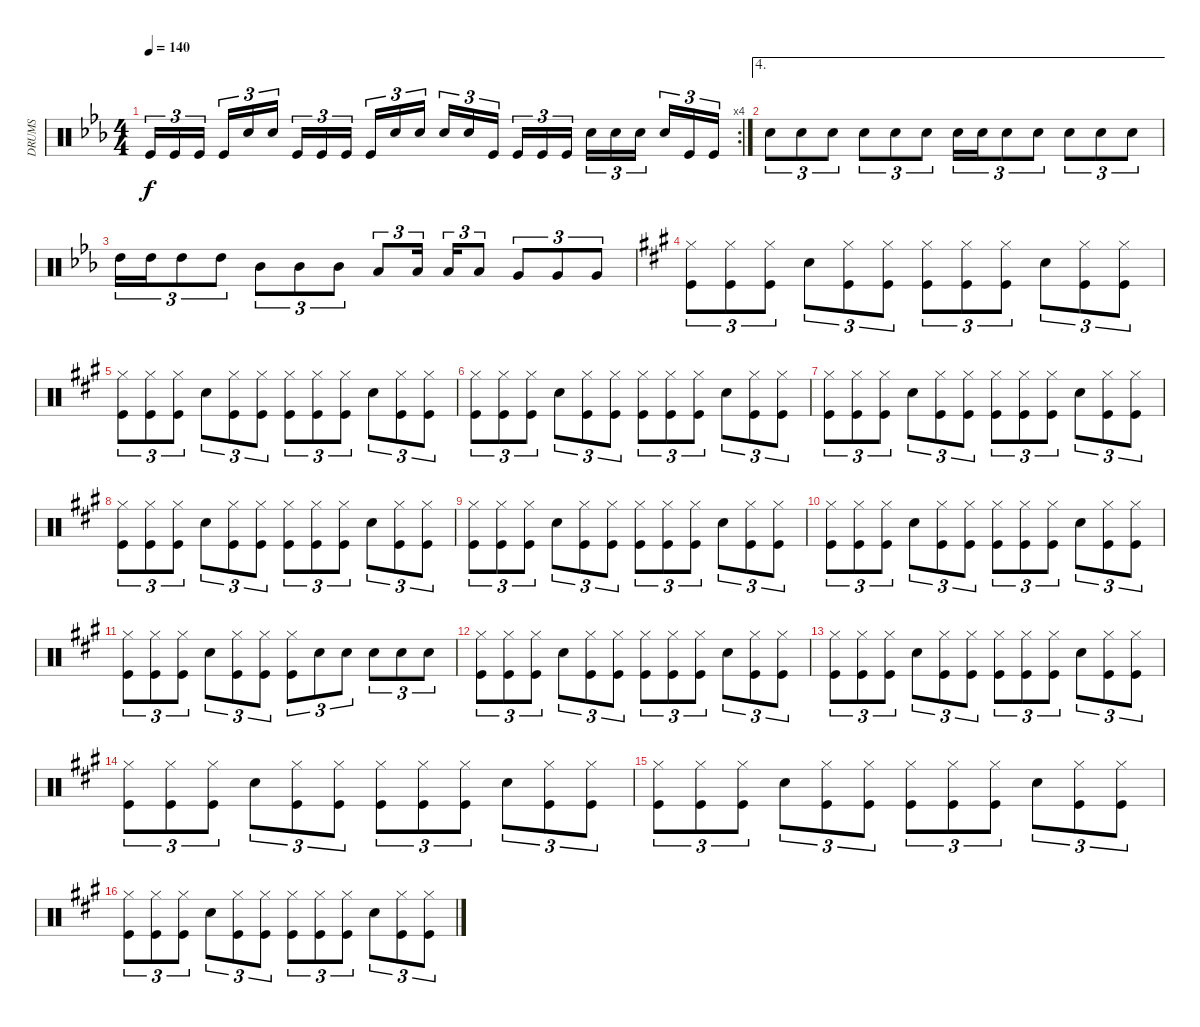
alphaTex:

\track ("DRUMS" "DRUMS") {instrument percussion}
\staff {score}
\articulation defaults
\rc 4
\ts (4 4)
\tempo 140
\clef neutral
\ks eb "Kick (hit)".16{tu (3 2) dy f} "Kick (hit)".16{tu (3 2)} "Kick (hit)".16{tu (3 2) beam splitsecondary} "Kick (hit)".16{tu (3 2)} "Snare (hit) 2".16{tu (3 2)} "Snare (hit) 2".16{tu (3 2)} "Kick (hit)".16{tu (3 2)} "Kick (hit)".16{tu (3 2)} "Kick (hit)".16{tu (3 2) beam splitsecondary} "Kick (hit)".16{tu (3 2)} "Snare (hit) 2".16{tu (3 2)} "Snare (hit) 2".16{tu (3 2)} "Snare (hit) 2".16{tu (3 2)} "Snare (hit) 2".16{tu (3 2)} "Kick (hit)".16{tu (3 2) beam splitsecondary} "Kick (hit)".16{tu (3 2)} "Kick (hit)".16{tu (3 2)} "Kick (hit)".16{tu (3 2)} "Snare (hit) 2".16{tu (3 2)} "Snare (hit) 2".16{tu (3 2)} "Snare (hit) 2".16{tu (3 2) beam splitsecondary} "Snare (hit) 2".16{tu (3 2)} "Kick (hit)".16{tu (3 2)} "Kick (hit)".16{tu (3 2)}
|
\ae 4 "Snare (hit) 2".8{tu (3 2)} "Snare (hit) 2".8{tu (3 2)} "Snare (hit) 2".8{tu (3 2)} "Snare (hit) 2".8{tu (3 2)} "Snare (hit) 2".8{tu (3 2)} "Snare (hit) 2".8{tu (3 2)} "Snare (hit) 2".16{tu (3 2)} "Snare (hit) 2".16{tu (3 2)} "Snare (hit) 2".8{tu (3 2)} "Snare (hit) 2".8{tu (3 2)} "Snare (hit) 2".8{tu (3 2)} "Snare (hit) 2".8{tu (3 2)} "Snare (hit) 2".8{tu (3 2)}
|
"High Tom (hit)".16{tu (3 2)} "High Tom (hit)".16{tu (3 2)} "High Tom (hit)".8{tu (3 2)} "High Tom (hit)".8{tu (3 2)} "Mid Tom (hit)".8{tu (3 2)} "Mid Tom (hit)".8{tu (3 2)} "Mid Tom (hit)".8{tu (3 2)} "Low Tom (hit)".8{tu (3 2)} "Low Tom (hit)".16{tu (3 2) beam splitsecondary} "Low Tom (hit)".16{tu (3 2)} "Low Tom (hit)".8{tu (3 2)} "Very Low Tom (hit)".8{tu (3 2)} "Very Low Tom (hit)".8{tu (3 2)} "Very Low Tom (hit)".8{tu (3 2)} |
\ks a
("Hi-Hat (closed)" "Kick (hit)").8{tu (3 2)} ("Hi-Hat (closed)" "Kick (hit)").8{tu (3 2)} ("Hi-Hat (closed)" "Kick (hit)").8{tu (3 2)} "Snare (hit) 2".8{tu (3 2)} ("Hi-Hat (closed)" "Kick (hit)").8{tu (3 2)} ("Hi-Hat (closed)" "Kick (hit)").8{tu (3 2)} ("Hi-Hat (closed)" "Kick (hit)").8{tu (3 2)} ("Hi-Hat (closed)" "Kick (hit)").8{tu (3 2)} ("Hi-Hat (closed)" "Kick (hit)").8{tu (3 2)} "Snare (hit) 2".8{tu (3 2)} ("Hi-Hat (closed)" "Kick (hit)").8{tu (3 2)} ("Hi-Hat (closed)" "Kick (hit)").8{tu (3 2)} |
("Hi-Hat (closed)" "Kick (hit)").8{tu (3 2)} ("Hi-Hat (closed)" "Kick (hit)").8{tu (3 2)} ("Hi-Hat (closed)" "Kick (hit)").8{tu (3 2)} "Snare (hit) 2".8{tu (3 2)} ("Hi-Hat (closed)" "Kick (hit)").8{tu (3 2)} ("Hi-Hat (closed)" "Kick (hit)").8{tu (3 2)} ("Hi-Hat (closed)" "Kick (hit)").8{tu (3 2)} ("Hi-Hat (closed)" "Kick (hit)").8{tu (3 2)} ("Hi-Hat (closed)" "Kick (hit)").8{tu (3 2)} "Snare (hit) 2".8{tu (3 2)} ("Hi-Hat (closed)" "Kick (hit)").8{tu (3 2)} ("Hi-Hat (closed)" "Kick (hit)").8{tu (3 2)} |
("Hi-Hat (closed)" "Kick (hit)").8{tu (3 2)} ("Hi-Hat (closed)" "Kick (hit)").8{tu (3 2)} ("Hi-Hat (closed)" "Kick (hit)").8{tu (3 2)} "Snare (hit) 2".8{tu (3 2)} ("Hi-Hat (closed)" "Kick (hit)").8{tu (3 2)} ("Hi-Hat (closed)" "Kick (hit)").8{tu (3 2)} ("Hi-Hat (closed)" "Kick (hit)").8{tu (3 2)} ("Hi-Hat (closed)" "Kick (hit)").8{tu (3 2)} ("Hi-Hat (closed)" "Kick (hit)").8{tu (3 2)} "Snare (hit) 2".8{tu (3 2)} ("Hi-Hat (closed)" "Kick (hit)").8{tu (3 2)} ("Hi-Hat (closed)" "Kick (hit)").8{tu (3 2)} |
("Hi-Hat (closed)" "Kick (hit)").8{tu (3 2)} ("Hi-Hat (closed)" "Kick (hit)").8{tu (3 2)} ("Hi-Hat (closed)" "Kick (hit)").8{tu (3 2)} "Snare (hit) 2".8{tu (3 2)} ("Hi-Hat (closed)" "Kick (hit)").8{tu (3 2)} ("Hi-Hat (closed)" "Kick (hit)").8{tu (3 2)} ("Hi-Hat (closed)" "Kick (hit)").8{tu (3 2)} ("Hi-Hat (closed)" "Kick (hit)").8{tu (3 2)} ("Hi-Hat (closed)" "Kick (hit)").8{tu (3 2)} "Snare (hit) 2".8{tu (3 2)} ("Hi-Hat (closed)" "Kick (hit)").8{tu (3 2)} ("Hi-Hat (closed)" "Kick (hit)").8{tu (3 2)} |
("Hi-Hat (closed)" "Kick (hit)").8{tu (3 2)} ("Hi-Hat (closed)" "Kick (hit)").8{tu (3 2)} ("Hi-Hat (closed)" "Kick (hit)").8{tu (3 2)} "Snare (hit) 2".8{tu (3 2)} ("Hi-Hat (closed)" "Kick (hit)").8{tu (3 2)} ("Hi-Hat (closed)" "Kick (hit)").8{tu (3 2)} ("Hi-Hat (closed)" "Kick (hit)").8{tu (3 2)} ("Hi-Hat (closed)" "Kick (hit)").8{tu (3 2)} ("Hi-Hat (closed)" "Kick (hit)").8{tu (3 2)} "Snare (hit) 2".8{tu (3 2)} ("Hi-Hat (closed)" "Kick (hit)").8{tu (3 2)} ("Hi-Hat (closed)" "Kick (hit)").8{tu (3 2)} |
("Hi-Hat (closed)" "Kick (hit)").8{tu (3 2)} ("Hi-Hat (closed)" "Kick (hit)").8{tu (3 2)} ("Hi-Hat (closed)" "Kick (hit)").8{tu (3 2)} "Snare (hit) 2".8{tu (3 2)} ("Hi-Hat (closed)" "Kick (hit)").8{tu (3 2)} ("Hi-Hat (closed)" "Kick (hit)").8{tu (3 2)} ("Hi-Hat (closed)" "Kick (hit)").8{tu (3 2)} ("Hi-Hat (closed)" "Kick (hit)").8{tu (3 2)} ("Hi-Hat (closed)" "Kick (hit)").8{tu (3 2)} "Snare (hit) 2".8{tu (3 2)} ("Hi-Hat (closed)" "Kick (hit)").8{tu (3 2)} ("Hi-Hat (closed)" "Kick (hit)").8{tu (3 2)} |
("Hi-Hat (closed)" "Kick (hit)").8{tu (3 2)} ("Hi-Hat (closed)" "Kick (hit)").8{tu (3 2)} ("Hi-Hat (closed)" "Kick (hit)").8{tu (3 2)} "Snare (hit) 2".8{tu (3 2)} ("Hi-Hat (closed)" "Kick (hit)").8{tu (3 2)} ("Hi-Hat (closed)" "Kick (hit)").8{tu (3 2)} ("Hi-Hat (closed)" "Kick (hit)").8{tu (3 2)} ("Hi-Hat (closed)" "Kick (hit)").8{tu (3 2)} ("Hi-Hat (closed)" "Kick (hit)").8{tu (3 2)} "Snare (hit) 2".8{tu (3 2)} ("Hi-Hat (closed)" "Kick (hit)").8{tu (3 2)} ("Hi-Hat (closed)" "Kick (hit)").8{tu (3 2)} |
("Hi-Hat (closed)" "Kick (hit)").8{tu (3 2)} ("Hi-Hat (closed)" "Kick (hit)").8{tu (3 2)} ("Hi-Hat (closed)" "Kick (hit)").8{tu (3 2)} "Snare (hit) 2".8{tu (3 2)} ("Hi-Hat (closed)" "Kick (hit)").8{tu (3 2)} ("Hi-Hat (closed)" "Kick (hit)").8{tu (3 2)} ("Hi-Hat (closed)" "Kick (hit)").8{tu (3 2)} "Snare (hit) 2".8{tu (3 2)} "Snare (hit) 2".8{tu (3 2)} "Snare (hit) 2".8{tu (3 2)} "Snare (hit) 2".8{tu (3 2)} "Snare (hit) 2".8{tu (3 2)} |
("Hi-Hat (closed)" "Kick (hit)").8{tu (3 2)} ("Hi-Hat (closed)" "Kick (hit)").8{tu (3 2)} ("Hi-Hat (closed)" "Kick (hit)").8{tu (3 2)} "Snare (hit) 2".8{tu (3 2)} ("Hi-Hat (closed)" "Kick (hit)").8{tu (3 2)} ("Hi-Hat (closed)" "Kick (hit)").8{tu (3 2)} ("Hi-Hat (closed)" "Kick (hit)").8{tu (3 2)} ("Hi-Hat (closed)" "Kick (hit)").8{tu (3 2)} ("Hi-Hat (closed)" "Kick (hit)").8{tu (3 2)} "Snare (hit) 2".8{tu (3 2)} ("Hi-Hat (closed)" "Kick (hit)").8{tu (3 2)} ("Hi-Hat (closed)" "Kick (hit)").8{tu (3 2)} |
("Hi-Hat (closed)" "Kick (hit)").8{tu (3 2)} ("Hi-Hat (closed)" "Kick (hit)").8{tu (3 2)} ("Hi-Hat (closed)" "Kick (hit)").8{tu (3 2)} "Snare (hit) 2".8{tu (3 2)} ("Hi-Hat (closed)" "Kick (hit)").8{tu (3 2)} ("Hi-Hat (closed)" "Kick (hit)").8{tu (3 2)} ("Hi-Hat (closed)" "Kick (hit)").8{tu (3 2)} ("Hi-Hat (closed)" "Kick (hit)").8{tu (3 2)} ("Hi-Hat (closed)" "Kick (hit)").8{tu (3 2)} "Snare (hit) 2".8{tu (3 2)} ("Hi-Hat (closed)" "Kick (hit)").8{tu (3 2)} ("Hi-Hat (closed)" "Kick (hit)").8{tu (3 2)} |
("Hi-Hat (closed)" "Kick (hit)").8{tu (3 2)} ("Hi-Hat (closed)" "Kick (hit)").8{tu (3 2)} ("Hi-Hat (closed)" "Kick (hit)").8{tu (3 2)} "Snare (hit) 2".8{tu (3 2)} ("Hi-Hat (closed)" "Kick (hit)").8{tu (3 2)} ("Hi-Hat (closed)" "Kick (hit)").8{tu (3 2)} ("Hi-Hat (closed)" "Kick (hit)").8{tu (3 2)} ("Hi-Hat (closed)" "Kick (hit)").8{tu (3 2)} ("Hi-Hat (closed)" "Kick (hit)").8{tu (3 2)} "Snare (hit) 2".8{tu (3 2)} ("Hi-Hat (closed)" "Kick (hit)").8{tu (3 2)} ("Hi-Hat (closed)" "Kick (hit)").8{tu (3 2)} |
("Hi-Hat (closed)" "Kick (hit)").8{tu (3 2)} ("Hi-Hat (closed)" "Kick (hit)").8{tu (3 2)} ("Hi-Hat (closed)" "Kick (hit)").8{tu (3 2)} "Snare (hit) 2".8{tu (3 2)} ("Hi-Hat (closed)" "Kick (hit)").8{tu (3 2)} ("Hi-Hat (closed)" "Kick (hit)").8{tu (3 2)} ("Hi-Hat (closed)" "Kick (hit)").8{tu (3 2)} ("Hi-Hat (closed)" "Kick (hit)").8{tu (3 2)} ("Hi-Hat (closed)" "Kick (hit)").8{tu (3 2)} "Snare (hit) 2".8{tu (3 2)} ("Hi-Hat (closed)" "Kick (hit)").8{tu (3 2)} ("Hi-Hat (closed)" "Kick (hit)").8{tu (3 2)} |
("Hi-Hat (closed)" "Kick (hit)").8{tu (3 2)} ("Hi-Hat (closed)" "Kick (hit)").8{tu (3 2)} ("Hi-Hat (closed)" "Kick (hit)").8{tu (3 2)} "Snare (hit) 2".8{tu (3 2)} ("Hi-Hat (closed)" "Kick (hit)").8{tu (3 2)} ("Hi-Hat (closed)" "Kick (hit)").8{tu (3 2)} ("Hi-Hat (closed)" "Kick (hit)").8{tu (3 2)} ("Hi-Hat (closed)" "Kick (hit)").8{tu (3 2)} ("Hi-Hat (closed)" "Kick (hit)").8{tu (3 2)} "Snare (hit) 2".8{tu (3 2)} ("Hi-Hat (closed)" "Kick (hit)").8{tu (3 2)} ("Hi-Hat (closed)" "Kick (hit)").8{tu (3 2)}
